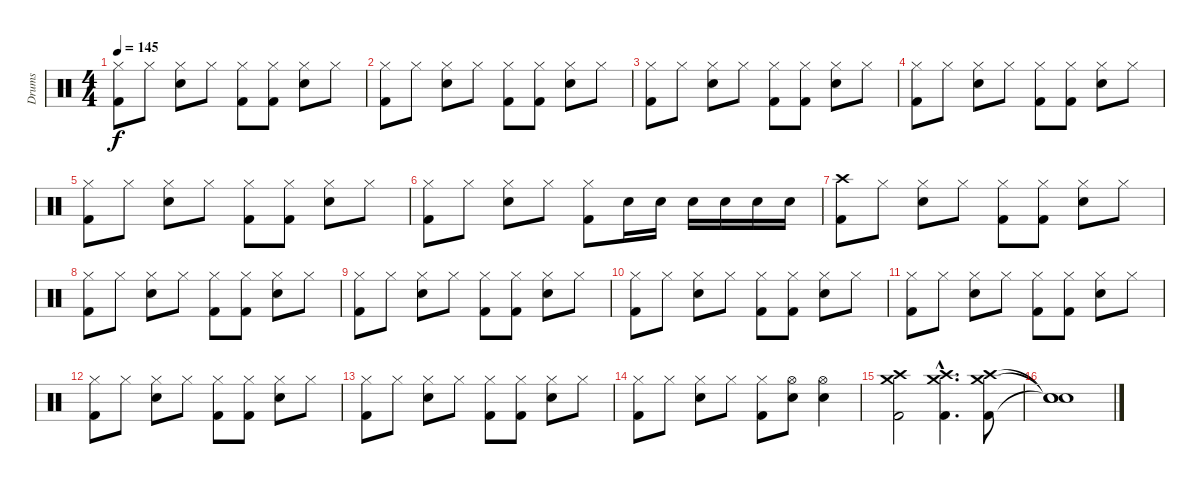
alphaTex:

\track ("Drums" "Drums") {instrument percussion}
\staff {score}
\articulation defaults
\ts (4 4)
\tempo 145
\clef neutral
\ks c
("Hi-Hat (closed)" "Kick (hit) 2").8{dy f} "Hi-Hat (closed)".8 ("Hi-Hat (closed)" "Electric Snare (hit)").8 "Hi-Hat (closed)".8 ("Hi-Hat (closed)" "Kick (hit) 2").8 ("Hi-Hat (closed)" "Kick (hit) 2").8 ("Hi-Hat (closed)" "Electric Snare (hit)").8 "Hi-Hat (closed)".8 |
("Hi-Hat (closed)" "Kick (hit) 2").8 "Hi-Hat (closed)".8 ("Hi-Hat (closed)" "Electric Snare (hit)").8 "Hi-Hat (closed)".8 ("Hi-Hat (closed)" "Kick (hit) 2").8 ("Hi-Hat (closed)" "Kick (hit) 2").8 ("Hi-Hat (closed)" "Electric Snare (hit)").8 "Hi-Hat (closed)".8 |
("Hi-Hat (closed)" "Kick (hit) 2").8 "Hi-Hat (closed)".8 ("Hi-Hat (closed)" "Electric Snare (hit)").8 "Hi-Hat (closed)".8 ("Hi-Hat (closed)" "Kick (hit) 2").8 ("Hi-Hat (closed)" "Kick (hit) 2").8 ("Hi-Hat (closed)" "Electric Snare (hit)").8 "Hi-Hat (closed)".8 |
("Hi-Hat (closed)" "Kick (hit) 2").8 "Hi-Hat (closed)".8 ("Hi-Hat (closed)" "Electric Snare (hit)").8 "Hi-Hat (closed)".8 ("Hi-Hat (closed)" "Kick (hit) 2").8 ("Hi-Hat (closed)" "Kick (hit) 2").8 ("Hi-Hat (closed)" "Electric Snare (hit)").8 "Hi-Hat (closed)".8 |
("Hi-Hat (closed)" "Kick (hit) 2").8 "Hi-Hat (closed)".8 ("Hi-Hat (closed)" "Electric Snare (hit)").8 "Hi-Hat (closed)".8 ("Hi-Hat (closed)" "Kick (hit) 2").8 ("Hi-Hat (closed)" "Kick (hit) 2").8 ("Hi-Hat (closed)" "Electric Snare (hit)").8 "Hi-Hat (closed)".8 |
("Hi-Hat (closed)" "Kick (hit) 2").8 "Hi-Hat (closed)".8 ("Hi-Hat (closed)" "Electric Snare (hit)").8 "Hi-Hat (closed)".8 ("Hi-Hat (closed)" "Kick (hit) 2").8 "Electric Snare (hit)".16 "Electric Snare (hit)".16 "Electric Snare (hit)".16 "Electric Snare (hit)".16 "Electric Snare (hit)".16 "Electric Snare (hit)".16 |
("Crash high (hit)" "Kick (hit) 2").8 "Hi-Hat (closed)".8 ("Hi-Hat (closed)" "Electric Snare (hit)").8 "Hi-Hat (closed)".8 ("Hi-Hat (closed)" "Kick (hit) 2").8 ("Hi-Hat (closed)" "Kick (hit) 2").8 ("Hi-Hat (closed)" "Electric Snare (hit)").8 "Hi-Hat (closed)".8 |
("Hi-Hat (closed)" "Kick (hit) 2").8 "Hi-Hat (closed)".8 ("Hi-Hat (closed)" "Electric Snare (hit)").8 "Hi-Hat (closed)".8 ("Hi-Hat (closed)" "Kick (hit) 2").8 ("Hi-Hat (closed)" "Kick (hit) 2").8 ("Hi-Hat (closed)" "Electric Snare (hit)").8 "Hi-Hat (closed)".8 |
("Hi-Hat (closed)" "Kick (hit) 2").8 "Hi-Hat (closed)".8 ("Hi-Hat (closed)" "Electric Snare (hit)").8 "Hi-Hat (closed)".8 ("Hi-Hat (closed)" "Kick (hit) 2").8 ("Hi-Hat (closed)" "Kick (hit) 2").8 ("Hi-Hat (closed)" "Electric Snare (hit)").8 "Hi-Hat (closed)".8 |
("Hi-Hat (closed)" "Kick (hit) 2").8 "Hi-Hat (closed)".8 ("Hi-Hat (closed)" "Electric Snare (hit)").8 "Hi-Hat (closed)".8 ("Hi-Hat (closed)" "Kick (hit) 2").8 ("Hi-Hat (closed)" "Kick (hit) 2").8 ("Hi-Hat (closed)" "Electric Snare (hit)").8 "Hi-Hat (closed)".8 |
("Hi-Hat (closed)" "Kick (hit) 2").8 "Hi-Hat (closed)".8 ("Hi-Hat (closed)" "Electric Snare (hit)").8 "Hi-Hat (closed)".8 ("Hi-Hat (closed)" "Kick (hit) 2").8 ("Hi-Hat (closed)" "Kick (hit) 2").8 ("Hi-Hat (closed)" "Electric Snare (hit)").8 "Hi-Hat (closed)".8 |
("Hi-Hat (closed)" "Kick (hit) 2").8 "Hi-Hat (closed)".8 ("Hi-Hat (closed)" "Electric Snare (hit)").8 "Hi-Hat (closed)".8 ("Hi-Hat (closed)" "Kick (hit) 2").8 ("Hi-Hat (closed)" "Kick (hit) 2").8 ("Hi-Hat (closed)" "Electric Snare (hit)").8 "Hi-Hat (closed)".8 |
("Hi-Hat (closed)" "Kick (hit) 2").8 "Hi-Hat (closed)".8 ("Hi-Hat (closed)" "Electric Snare (hit)").8 "Hi-Hat (closed)".8 ("Hi-Hat (closed)" "Kick (hit) 2").8 ("Hi-Hat (closed)" "Kick (hit) 2").8 ("Hi-Hat (closed)" "Electric Snare (hit)").8 "Hi-Hat (closed)".8 |
("Hi-Hat (closed)" "Kick (hit) 2").8 "Hi-Hat (closed)".8 ("Hi-Hat (closed)" "Electric Snare (hit)").8 "Hi-Hat (closed)".8 ("Hi-Hat (closed)" "Kick (hit) 2").8 ("Hi-Hat (open)" "Electric Snare (hit)").8 ("Hi-Hat (open)" "Electric Snare (hit)").4 |
("Crash high (hit)" "Crash medium (hit)" "Kick (hit) 2").2 ("Crash high (hit)"{hac} "Crash medium (hit)"{hac} "Kick (hit) 2"{hac}).4{d} ("Crash high (hit)" "Crash medium (hit)" "Kick (hit) 2").8 |
("Snare (hit)"{t} "Snare (hit)"{t} "Snare (hit)"{t}).1
